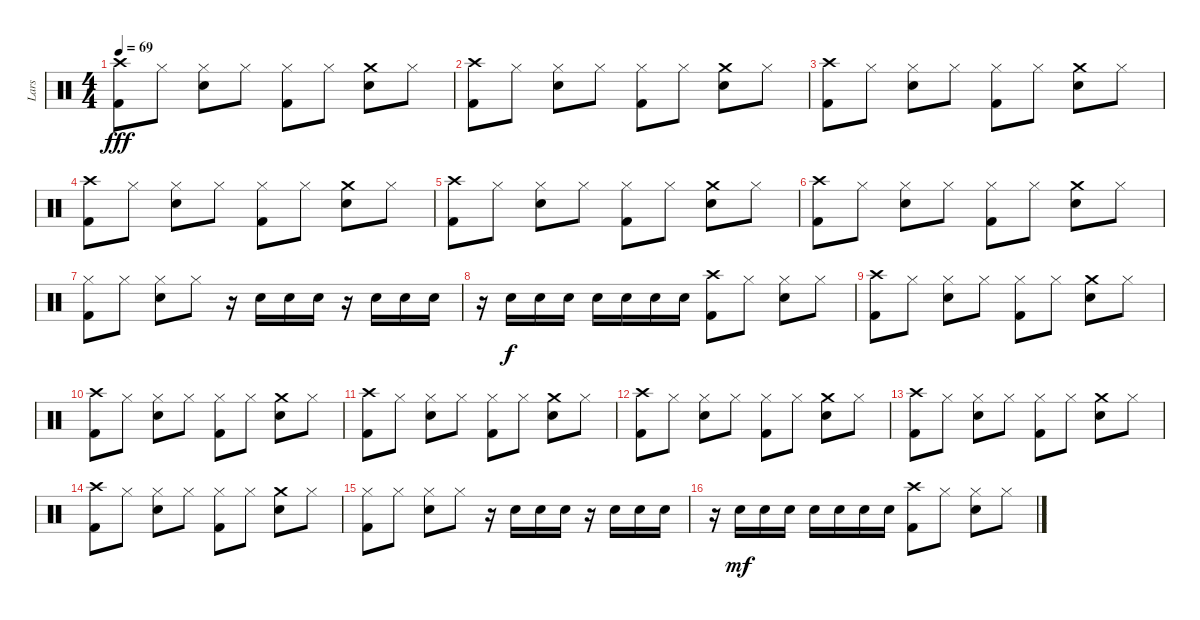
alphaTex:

\track ("Lars" "Lars") {instrument percussion}
\staff {score}
\articulation defaults
\ts (4 4)
\tempo 69
\clef neutral
\ks c
("Crash high (hit)" "Kick (hit) 2").8{dy fff} "Hi-Hat (closed)".8 ("Hi-Hat (closed)" "Electric Snare (hit)").8 "Hi-Hat (closed)".8 ("Hi-Hat (closed)" "Kick (hit) 2").8 "Hi-Hat (closed)".8 ("Crash medium (hit)" "Electric Snare (hit)").8 "Hi-Hat (closed)".8 |
("Crash high (hit)" "Kick (hit) 2").8 "Hi-Hat (closed)".8 ("Hi-Hat (closed)" "Electric Snare (hit)").8 "Hi-Hat (closed)".8 ("Hi-Hat (closed)" "Kick (hit) 2").8 "Hi-Hat (closed)".8 ("Crash medium (hit)" "Electric Snare (hit)").8 "Hi-Hat (closed)".8 |
("Crash high (hit)" "Kick (hit) 2").8 "Hi-Hat (closed)".8 ("Hi-Hat (closed)" "Electric Snare (hit)").8 "Hi-Hat (closed)".8 ("Hi-Hat (closed)" "Kick (hit) 2").8 "Hi-Hat (closed)".8 ("Crash medium (hit)" "Electric Snare (hit)").8 "Hi-Hat (closed)".8 |
("Crash high (hit)" "Kick (hit) 2").8 "Hi-Hat (closed)".8 ("Hi-Hat (closed)" "Electric Snare (hit)").8 "Hi-Hat (closed)".8 ("Hi-Hat (closed)" "Kick (hit) 2").8 "Hi-Hat (closed)".8 ("Crash medium (hit)" "Electric Snare (hit)").8 "Hi-Hat (closed)".8 |
("Crash high (hit)" "Kick (hit) 2").8 "Hi-Hat (closed)".8 ("Hi-Hat (closed)" "Electric Snare (hit)").8 "Hi-Hat (closed)".8 ("Hi-Hat (closed)" "Kick (hit) 2").8 "Hi-Hat (closed)".8 ("Crash medium (hit)" "Electric Snare (hit)").8 "Hi-Hat (closed)".8 |
("Crash high (hit)" "Kick (hit) 2").8 "Hi-Hat (closed)".8 ("Hi-Hat (closed)" "Electric Snare (hit)").8 "Hi-Hat (closed)".8 ("Hi-Hat (closed)" "Kick (hit) 2").8 "Hi-Hat (closed)".8 ("Crash medium (hit)" "Electric Snare (hit)").8 "Hi-Hat (closed)".8 |
("Hi-Hat (closed)" "Kick (hit) 2").8 "Hi-Hat (closed)".8 ("Hi-Hat (closed)" "Electric Snare (hit)").8 "Hi-Hat (closed)".8 r.16 "Electric Snare (hit)".16 "Electric Snare (hit)".16 "Electric Snare (hit)".16 r.16 "Electric Snare (hit)".16 "Electric Snare (hit)".16 "Electric Snare (hit)".16 |
r.16 "Electric Snare (hit)".16{dy f} "Electric Snare (hit)".16 "Electric Snare (hit)".16 "Electric Snare (hit)".16 "Electric Snare (hit)".16 "Electric Snare (hit)".16 "Electric Snare (hit)".16 ("Crash high (hit)" "Kick (hit) 2").8 "Hi-Hat (closed)".8 ("Hi-Hat (closed)" "Electric Snare (hit)").8 "Hi-Hat (closed)".8 |
("Crash high (hit)" "Kick (hit) 2").8 "Hi-Hat (closed)".8 ("Hi-Hat (closed)" "Electric Snare (hit)").8 "Hi-Hat (closed)".8 ("Hi-Hat (closed)" "Kick (hit) 2").8 "Hi-Hat (closed)".8 ("Crash medium (hit)" "Electric Snare (hit)").8 "Hi-Hat (closed)".8 |
("Crash high (hit)" "Kick (hit) 2").8 "Hi-Hat (closed)".8 ("Hi-Hat (closed)" "Electric Snare (hit)").8 "Hi-Hat (closed)".8 ("Hi-Hat (closed)" "Kick (hit) 2").8 "Hi-Hat (closed)".8 ("Crash medium (hit)" "Electric Snare (hit)").8 "Hi-Hat (closed)".8 |
("Crash high (hit)" "Kick (hit) 2").8 "Hi-Hat (closed)".8 ("Hi-Hat (closed)" "Electric Snare (hit)").8 "Hi-Hat (closed)".8 ("Hi-Hat (closed)" "Kick (hit) 2").8 "Hi-Hat (closed)".8 ("Crash medium (hit)" "Electric Snare (hit)").8 "Hi-Hat (closed)".8 |
("Crash high (hit)" "Kick (hit) 2").8 "Hi-Hat (closed)".8 ("Hi-Hat (closed)" "Electric Snare (hit)").8 "Hi-Hat (closed)".8 ("Hi-Hat (closed)" "Kick (hit) 2").8 "Hi-Hat (closed)".8 ("Crash medium (hit)" "Electric Snare (hit)").8 "Hi-Hat (closed)".8 |
("Crash high (hit)" "Kick (hit) 2").8 "Hi-Hat (closed)".8 ("Hi-Hat (closed)" "Electric Snare (hit)").8 "Hi-Hat (closed)".8 ("Hi-Hat (closed)" "Kick (hit) 2").8 "Hi-Hat (closed)".8 ("Crash medium (hit)" "Electric Snare (hit)").8 "Hi-Hat (closed)".8 |
("Crash high (hit)" "Kick (hit) 2").8 "Hi-Hat (closed)".8 ("Hi-Hat (closed)" "Electric Snare (hit)").8 "Hi-Hat (closed)".8 ("Hi-Hat (closed)" "Kick (hit) 2").8 "Hi-Hat (closed)".8 ("Crash medium (hit)" "Electric Snare (hit)").8 "Hi-Hat (closed)".8 |
("Hi-Hat (closed)" "Kick (hit) 2").8 "Hi-Hat (closed)".8 ("Hi-Hat (closed)" "Electric Snare (hit)").8 "Hi-Hat (closed)".8 r.16 "Electric Snare (hit)".16 "Electric Snare (hit)".16 "Electric Snare (hit)".16 r.16 "Electric Snare (hit)".16 "Electric Snare (hit)".16 "Electric Snare (hit)".16 |
r.16 "Electric Snare (hit)".16{dy mf} "Electric Snare (hit)".16 "Electric Snare (hit)".16 "Electric Snare (hit)".16 "Electric Snare (hit)".16 "Electric Snare (hit)".16 "Electric Snare (hit)".16 ("Crash high (hit)" "Kick (hit) 2").8 "Hi-Hat (closed)".8 ("Hi-Hat (closed)" "Electric Snare (hit)").8 "Hi-Hat (closed)".8
